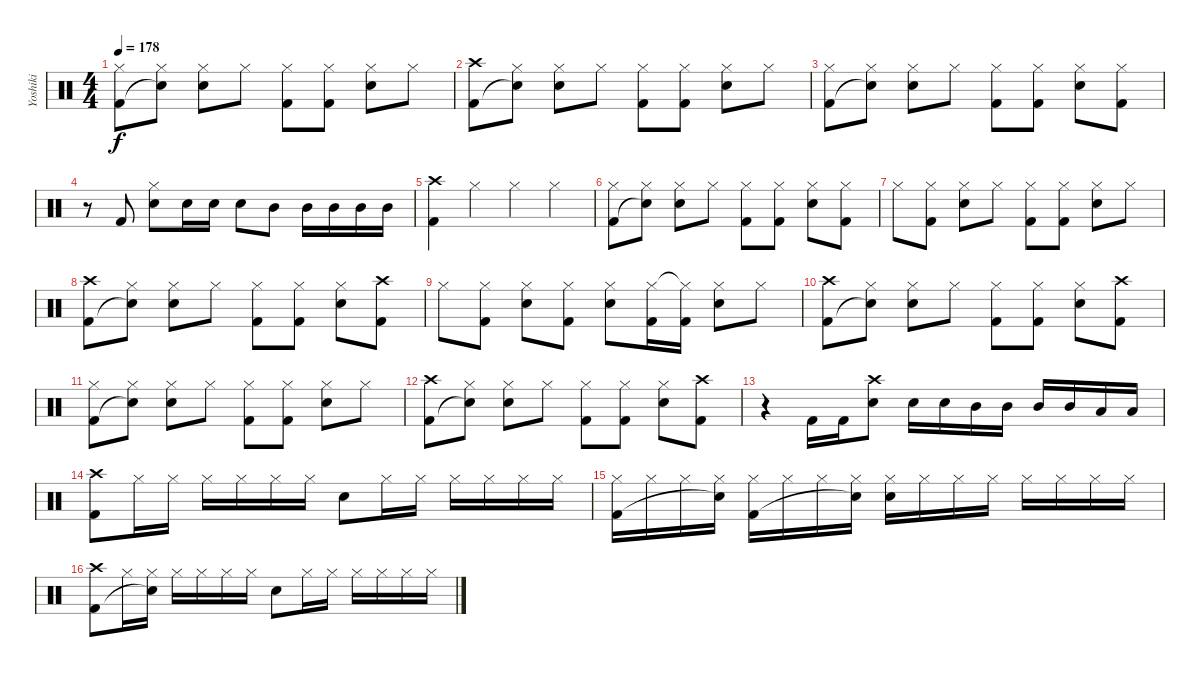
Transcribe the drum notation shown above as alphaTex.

\track ("Yoshiki" "Yoshiki") {instrument percussion}
\staff {score}
\articulation defaults
\ts (4 4)
\tempo 178
\clef neutral
\ks c
("Hi-Hat (closed)" "Kick (hit) 2").8{dy f} ("Hi-Hat (closed)" "Snare (hit)"{t}).8 ("Hi-Hat (closed)" "Snare (hit) 2").8 "Hi-Hat (closed)".8 ("Hi-Hat (closed)" "Kick (hit) 2").8 ("Hi-Hat (closed)" "Kick (hit) 2").8 ("Hi-Hat (closed)" "Snare (hit) 2").8 "Hi-Hat (closed)".8 |
("Crash high (hit)" "Kick (hit) 2").8 ("Hi-Hat (closed)" "Snare (hit)"{t}).8 ("Hi-Hat (closed)" "Snare (hit) 2").8 "Hi-Hat (closed)".8 ("Hi-Hat (closed)" "Kick (hit) 2").8 ("Hi-Hat (closed)" "Kick (hit) 2").8 ("Hi-Hat (closed)" "Snare (hit) 2").8 "Hi-Hat (closed)".8 |
("Hi-Hat (closed)" "Kick (hit) 2").8 ("Hi-Hat (closed)" "Snare (hit)"{t}).8 ("Hi-Hat (closed)" "Snare (hit) 2").8 "Hi-Hat (closed)".8 ("Hi-Hat (closed)" "Kick (hit) 2").8 ("Hi-Hat (closed)" "Kick (hit) 2").8 ("Hi-Hat (closed)" "Snare (hit) 2").8 ("Hi-Hat (closed)" "Kick (hit) 2").8 |
r.8 "Kick (hit) 2".8 ("Hi-Hat (closed)" "Snare (hit) 2").8 "Snare (hit) 2".16 "Snare (hit) 2".16 "Snare (hit) 2".8 "Mid Tom (hit)".8 "Mid Tom (hit)".16 "Mid Tom (hit)".16 "Mid Tom (hit)".16 "Mid Tom (hit)".16 |
("Crash high (hit)" "Kick (hit) 2").4 "Hi-Hat (closed)".4 "Hi-Hat (closed)".4 "Hi-Hat (closed)".4 |
("Hi-Hat (closed)" "Kick (hit) 2").8 ("Hi-Hat (closed)" "Snare (hit)"{t}).8 ("Hi-Hat (closed)" "Snare (hit) 2").8 "Hi-Hat (closed)".8 ("Hi-Hat (closed)" "Kick (hit) 2").8 ("Hi-Hat (closed)" "Kick (hit) 2").8 ("Hi-Hat (closed)" "Snare (hit) 2").8 ("Hi-Hat (closed)" "Kick (hit) 2").8 |
"Hi-Hat (closed)".8 ("Hi-Hat (closed)" "Kick (hit) 2").8 ("Hi-Hat (closed)" "Snare (hit) 2").8 "Hi-Hat (closed)".8 ("Hi-Hat (closed)" "Kick (hit) 2").8 ("Hi-Hat (closed)" "Kick (hit) 2").8 ("Hi-Hat (closed)" "Snare (hit) 2").8 "Hi-Hat (closed)".8 |
("Crash high (hit)" "Kick (hit) 2").8 ("Hi-Hat (closed)" "Snare (hit)"{t}).8 ("Hi-Hat (closed)" "Snare (hit) 2").8 "Hi-Hat (closed)".8 ("Hi-Hat (closed)" "Kick (hit) 2").8 ("Hi-Hat (closed)" "Kick (hit) 2").8 ("Hi-Hat (closed)" "Snare (hit) 2").8 ("Crash high (hit)" "Kick (hit) 2").8 |
"Hi-Hat (closed)".8 ("Hi-Hat (closed)" "Kick (hit) 2").8 ("Hi-Hat (closed)" "Snare (hit) 2").8 ("Hi-Hat (closed)" "Kick (hit) 2").8 ("Hi-Hat (closed)" "Snare (hit) 2").8 ("Hi-Hat (closed)" "Kick (hit) 2").16 ("Hi-Hat (closed)"{t} "Kick (hit) 2").16 ("Hi-Hat (closed)" "Snare (hit) 2").8 "Hi-Hat (closed)".8 |
("Crash high (hit)" "Kick (hit) 2").8 ("Hi-Hat (closed)" "Snare (hit)"{t}).8 ("Hi-Hat (closed)" "Snare (hit) 2").8 "Hi-Hat (closed)".8 ("Hi-Hat (closed)" "Kick (hit) 2").8 ("Hi-Hat (closed)" "Kick (hit) 2").8 ("Hi-Hat (closed)" "Snare (hit) 2").8 ("Crash high (hit)" "Kick (hit) 2").8 |
("Hi-Hat (closed)" "Kick (hit) 2").8 ("Hi-Hat (closed)" "Snare (hit)"{t}).8 ("Hi-Hat (closed)" "Snare (hit) 2").8 "Hi-Hat (closed)".8 ("Hi-Hat (closed)" "Kick (hit) 2").8 ("Hi-Hat (closed)" "Kick (hit) 2").8 ("Hi-Hat (closed)" "Snare (hit) 2").8 "Hi-Hat (closed)".8 |
("Crash high (hit)" "Kick (hit) 2").8 ("Hi-Hat (closed)" "Snare (hit)"{t}).8 ("Hi-Hat (closed)" "Snare (hit) 2").8 "Hi-Hat (closed)".8 ("Hi-Hat (closed)" "Kick (hit) 2").8 ("Hi-Hat (closed)" "Kick (hit) 2").8 ("Hi-Hat (closed)" "Snare (hit) 2").8 ("Crash high (hit)" "Kick (hit) 2").8 |
r.4 "Kick (hit) 2".16 "Kick (hit) 2".16 ("Crash high (hit)" "Snare (hit) 2").8 "Snare (hit) 2".16 "Snare (hit) 2".16 "Mid Tom (hit)".16 "Mid Tom (hit)".16 "Mid Tom (hit)".16 "Mid Tom (hit)".16 "Low Tom (hit)".16 "Low Tom (hit)".16 |
("Crash high (hit)" "Kick (hit) 2").8 "Hi-Hat (closed)".16 "Hi-Hat (closed)".16 "Hi-Hat (closed)".16 "Hi-Hat (closed)".16 "Hi-Hat (closed)".16 "Hi-Hat (closed)".16 "Snare (hit) 2".8 "Hi-Hat (closed)".16 "Hi-Hat (closed)".16 "Hi-Hat (closed)".16 "Hi-Hat (closed)".16 "Hi-Hat (closed)".16 "Hi-Hat (closed)".16 |
("Hi-Hat (closed)" "Kick (hit) 2").16 "Hi-Hat (closed)".16 "Hi-Hat (closed)".16 ("Hi-Hat (closed)" "Snare (hit)"{t}).16 ("Hi-Hat (closed)" "Kick (hit) 2").16 "Hi-Hat (closed)".16 "Hi-Hat (closed)".16 ("Hi-Hat (closed)" "Snare (hit)"{t}).16 ("Hi-Hat (closed)" "Snare (hit) 2").16 "Hi-Hat (closed)".16 "Hi-Hat (closed)".16 "Hi-Hat (closed)".16 "Hi-Hat (closed)".16 "Hi-Hat (closed)".16 "Hi-Hat (closed)".16 "Hi-Hat (closed)".16 |
("Crash high (hit)" "Kick (hit) 2").8 "Hi-Hat (closed)".16 ("Hi-Hat (closed)" "Snare (hit)"{t}).16 "Hi-Hat (closed)".16 "Hi-Hat (closed)".16 "Hi-Hat (closed)".16 "Hi-Hat (closed)".16 "Snare (hit) 2".8 "Hi-Hat (closed)".16 "Hi-Hat (closed)".16 "Hi-Hat (closed)".16 "Hi-Hat (closed)".16 "Hi-Hat (closed)".16 "Hi-Hat (closed)".16
